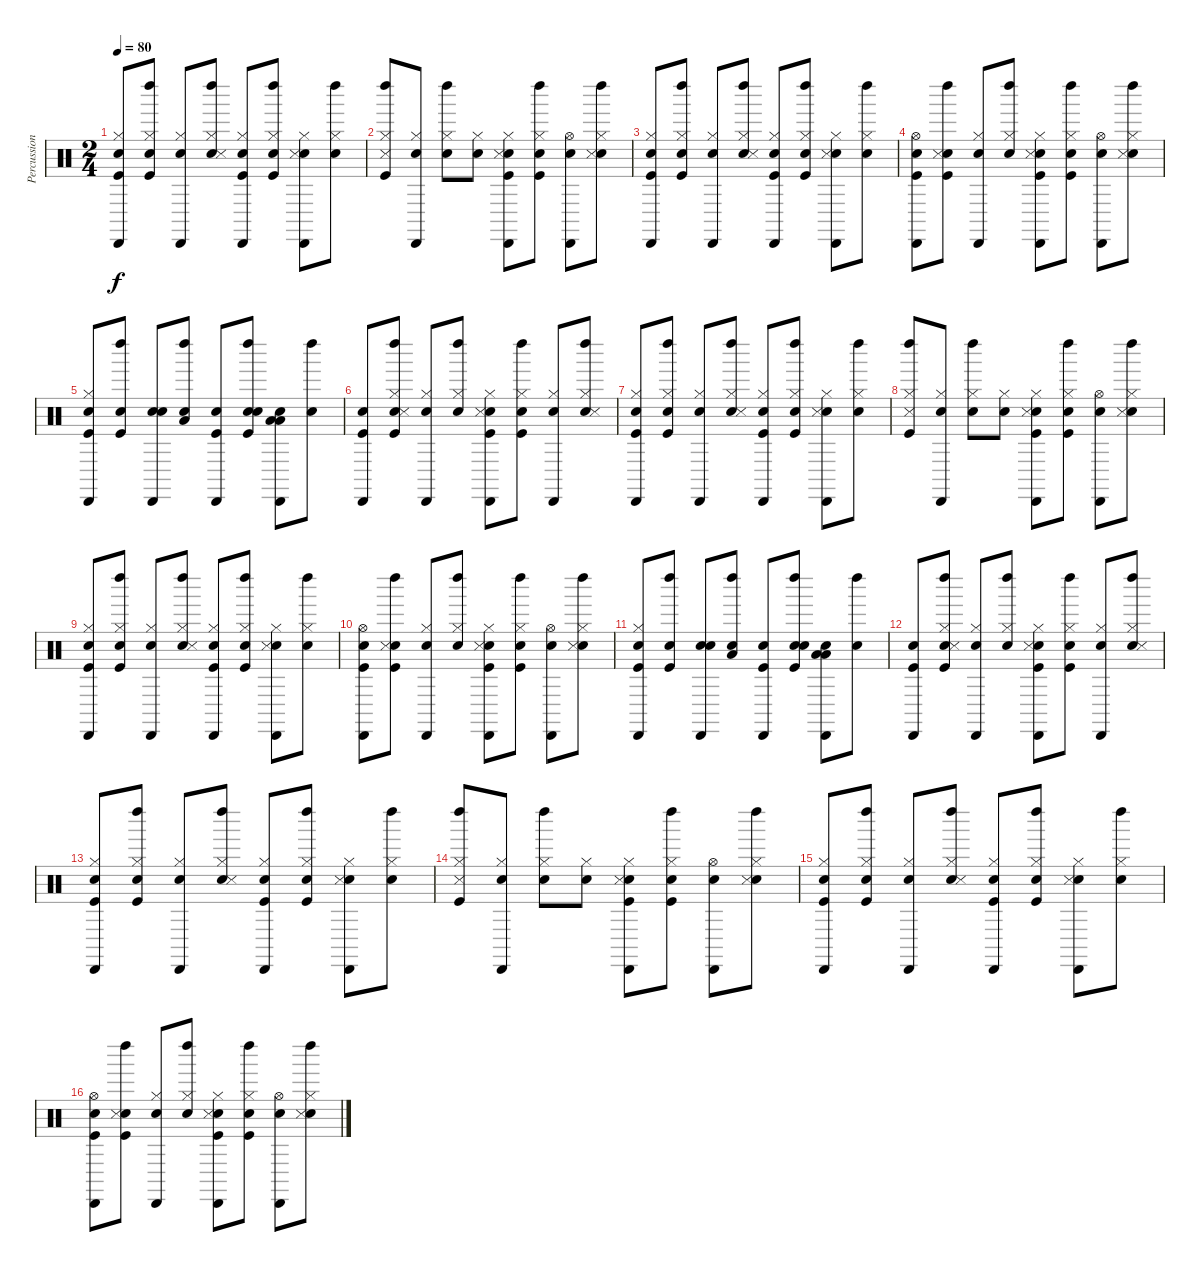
\track ("Percussions" "Percussion") {instrument percussion}
\staff {score}
\articulation defaults
\ts (2 4)
\tempo 80
\clef neutral
\ks c
("Snare (hit)" "Kick (hit)" "Hi-Hat (closed)" "Cabasa (hit)").8{dy f} ("Snare (hit)" "Kick (hit)" "Hi-Hat (closed)" "Left Maraca (hit)").8 ("Snare (hit)" "Hi-Hat (closed)" "Cabasa (hit)").8 ("Snare (hit)" "Hi-Hat (closed)" "Snare (side stick) 3" "Left Maraca (hit)").8 ("Snare (hit)" "Kick (hit)" "Hi-Hat (closed)" "Cabasa (hit)").8 ("Snare (hit)" "Kick (hit)" "Hi-Hat (closed)" "Left Maraca (hit)").8 ("Snare (hit)" "Hi-Hat (closed)" "Snare (side stick) 3" "Cabasa (hit)").8 ("Snare (hit)" "Hi-Hat (closed)" "Left Maraca (hit)").8 |
("Kick (hit)" "Hi-Hat (closed)" "Snare (side stick) 3" "Left Maraca (hit)").8 ("Snare (hit)" "Hi-Hat (closed)" "Cabasa (hit)").8 ("Snare (hit)" "Hi-Hat (closed)" "Left Maraca (hit)").8 ("Snare (hit)" "Hi-Hat (closed)").8 ("Snare (hit)" "Kick (hit)" "Hi-Hat (closed)" "Snare (side stick) 3" "Cabasa (hit)").8 ("Snare (hit)" "Kick (hit)" "Hi-Hat (closed)" "Left Maraca (hit)").8 ("Snare (hit)" "Hi-Hat (open)" "Cabasa (hit)").8 ("Snare (hit)" "Hi-Hat (closed)" "Snare (side stick) 3" "Left Maraca (hit)").8 |
("Snare (hit)" "Kick (hit)" "Hi-Hat (closed)" "Cabasa (hit)").8 ("Snare (hit)" "Kick (hit)" "Hi-Hat (closed)" "Left Maraca (hit)").8 ("Snare (hit)" "Hi-Hat (closed)" "Cabasa (hit)").8 ("Snare (hit)" "Hi-Hat (closed)" "Snare (side stick) 3" "Left Maraca (hit)").8 ("Snare (hit)" "Kick (hit)" "Hi-Hat (closed)" "Cabasa (hit)").8 ("Snare (hit)" "Kick (hit)" "Hi-Hat (closed)" "Left Maraca (hit)").8 ("Snare (hit)" "Hi-Hat (closed)" "Snare (side stick) 3" "Cabasa (hit)").8 ("Snare (hit)" "Hi-Hat (closed)" "Left Maraca (hit)").8 |
("Snare (hit)" "Kick (hit)" "Hi-Hat (open)" "Cabasa (hit)").8 ("Snare (hit)" "Kick (hit)" "Snare (side stick) 3" "Left Maraca (hit)").8 ("Snare (hit)" "Hi-Hat (closed)" "Cabasa (hit)").8 ("Snare (hit)" "Hi-Hat (closed)" "Left Maraca (hit)").8 ("Snare (hit)" "Kick (hit)" "Hi-Hat (closed)" "Snare (side stick) 3" "Cabasa (hit)").8 ("Snare (hit)" "Kick (hit)" "Hi-Hat (closed)" "Left Maraca (hit)").8 ("Snare (hit)" "Hi-Hat (open)" "Cabasa (hit)").8 ("Snare (hit)" "Hi-Hat (closed)" "Snare (side stick) 3" "Left Maraca (hit)").8 |
("Snare (hit)" "Kick (hit)" "Hi-Hat (closed)" "Cabasa (hit)").8 ("Snare (hit)" "Kick (hit)" "Left Maraca (hit)").8 ("Snare (hit)" "Snare (hit) 2" "Cabasa (hit)").8 ("Snare (hit)" "Low Tom (hit)" "Left Maraca (hit)").8 ("Snare (hit)" "Kick (hit)" "Cabasa (hit)").8 ("Snare (hit)" "Kick (hit)" "Snare (hit) 2" "Left Maraca (hit)").8 ("Snare (hit)" "Low Floor Tom (hit)" "Low Tom (hit)" "Cabasa (hit)").8 ("Snare (hit)" "Left Maraca (hit)").8 |
("Snare (hit)" "Kick (hit)" "Cabasa (hit)").8 ("Snare (hit)" "Kick (hit)" "Hi-Hat (closed)" "Snare (side stick) 3" "Left Maraca (hit)").8 ("Snare (hit)" "Hi-Hat (closed)" "Cabasa (hit)").8 ("Snare (hit)" "Hi-Hat (closed)" "Left Maraca (hit)").8 ("Snare (hit)" "Kick (hit)" "Hi-Hat (closed)" "Snare (side stick) 3" "Cabasa (hit)").8 ("Snare (hit)" "Kick (hit)" "Hi-Hat (closed)" "Left Maraca (hit)").8 ("Snare (hit)" "Hi-Hat (closed)" "Cabasa (hit)").8 ("Snare (hit)" "Hi-Hat (closed)" "Snare (side stick) 3" "Left Maraca (hit)").8 |
("Snare (hit)" "Kick (hit)" "Hi-Hat (closed)" "Cabasa (hit)").8 ("Snare (hit)" "Kick (hit)" "Hi-Hat (closed)" "Left Maraca (hit)").8 ("Snare (hit)" "Hi-Hat (closed)" "Cabasa (hit)").8 ("Snare (hit)" "Hi-Hat (closed)" "Snare (side stick) 3" "Left Maraca (hit)").8 ("Snare (hit)" "Kick (hit)" "Hi-Hat (closed)" "Cabasa (hit)").8 ("Snare (hit)" "Kick (hit)" "Hi-Hat (closed)" "Left Maraca (hit)").8 ("Snare (hit)" "Hi-Hat (closed)" "Snare (side stick) 3" "Cabasa (hit)").8 ("Snare (hit)" "Hi-Hat (closed)" "Left Maraca (hit)").8 |
("Kick (hit)" "Hi-Hat (closed)" "Snare (side stick) 3" "Left Maraca (hit)").8 ("Snare (hit)" "Hi-Hat (closed)" "Cabasa (hit)").8 ("Snare (hit)" "Hi-Hat (closed)" "Left Maraca (hit)").8 ("Snare (hit)" "Hi-Hat (closed)").8 ("Snare (hit)" "Kick (hit)" "Hi-Hat (closed)" "Snare (side stick) 3" "Cabasa (hit)").8 ("Snare (hit)" "Kick (hit)" "Hi-Hat (closed)" "Left Maraca (hit)").8 ("Snare (hit)" "Hi-Hat (open)" "Cabasa (hit)").8 ("Snare (hit)" "Hi-Hat (closed)" "Snare (side stick) 3" "Left Maraca (hit)").8 |
("Snare (hit)" "Kick (hit)" "Hi-Hat (closed)" "Cabasa (hit)").8 ("Snare (hit)" "Kick (hit)" "Hi-Hat (closed)" "Left Maraca (hit)").8 ("Snare (hit)" "Hi-Hat (closed)" "Cabasa (hit)").8 ("Snare (hit)" "Hi-Hat (closed)" "Snare (side stick) 3" "Left Maraca (hit)").8 ("Snare (hit)" "Kick (hit)" "Hi-Hat (closed)" "Cabasa (hit)").8 ("Snare (hit)" "Kick (hit)" "Hi-Hat (closed)" "Left Maraca (hit)").8 ("Snare (hit)" "Hi-Hat (closed)" "Snare (side stick) 3" "Cabasa (hit)").8 ("Snare (hit)" "Hi-Hat (closed)" "Left Maraca (hit)").8 |
("Snare (hit)" "Kick (hit)" "Hi-Hat (open)" "Cabasa (hit)").8 ("Snare (hit)" "Kick (hit)" "Snare (side stick) 3" "Left Maraca (hit)").8 ("Snare (hit)" "Hi-Hat (closed)" "Cabasa (hit)").8 ("Snare (hit)" "Hi-Hat (closed)" "Left Maraca (hit)").8 ("Snare (hit)" "Kick (hit)" "Hi-Hat (closed)" "Snare (side stick) 3" "Cabasa (hit)").8 ("Snare (hit)" "Kick (hit)" "Hi-Hat (closed)" "Left Maraca (hit)").8 ("Snare (hit)" "Hi-Hat (open)" "Cabasa (hit)").8 ("Snare (hit)" "Hi-Hat (closed)" "Snare (side stick) 3" "Left Maraca (hit)").8 |
("Snare (hit)" "Kick (hit)" "Hi-Hat (closed)" "Cabasa (hit)").8 ("Snare (hit)" "Kick (hit)" "Left Maraca (hit)").8 ("Snare (hit)" "Snare (hit) 2" "Cabasa (hit)").8 ("Snare (hit)" "Low Tom (hit)" "Left Maraca (hit)").8 ("Snare (hit)" "Kick (hit)" "Cabasa (hit)").8 ("Snare (hit)" "Kick (hit)" "Snare (hit) 2" "Left Maraca (hit)").8 ("Snare (hit)" "Low Floor Tom (hit)" "Low Tom (hit)" "Cabasa (hit)").8 ("Snare (hit)" "Left Maraca (hit)").8 |
("Snare (hit)" "Kick (hit)" "Cabasa (hit)").8 ("Snare (hit)" "Kick (hit)" "Hi-Hat (closed)" "Snare (side stick) 3" "Left Maraca (hit)").8 ("Snare (hit)" "Hi-Hat (closed)" "Cabasa (hit)").8 ("Snare (hit)" "Hi-Hat (closed)" "Left Maraca (hit)").8 ("Snare (hit)" "Kick (hit)" "Hi-Hat (closed)" "Snare (side stick) 3" "Cabasa (hit)").8 ("Snare (hit)" "Kick (hit)" "Hi-Hat (closed)" "Left Maraca (hit)").8 ("Snare (hit)" "Hi-Hat (closed)" "Cabasa (hit)").8 ("Snare (hit)" "Hi-Hat (closed)" "Snare (side stick) 3" "Left Maraca (hit)").8 |
("Snare (hit)" "Kick (hit)" "Hi-Hat (closed)" "Cabasa (hit)").8 ("Snare (hit)" "Kick (hit)" "Hi-Hat (closed)" "Left Maraca (hit)").8 ("Snare (hit)" "Hi-Hat (closed)" "Cabasa (hit)").8 ("Snare (hit)" "Hi-Hat (closed)" "Snare (side stick) 3" "Left Maraca (hit)").8 ("Snare (hit)" "Kick (hit)" "Hi-Hat (closed)" "Cabasa (hit)").8 ("Snare (hit)" "Kick (hit)" "Hi-Hat (closed)" "Left Maraca (hit)").8 ("Snare (hit)" "Hi-Hat (closed)" "Snare (side stick) 3" "Cabasa (hit)").8 ("Snare (hit)" "Hi-Hat (closed)" "Left Maraca (hit)").8 |
("Kick (hit)" "Hi-Hat (closed)" "Snare (side stick) 3" "Left Maraca (hit)").8 ("Snare (hit)" "Hi-Hat (closed)" "Cabasa (hit)").8 ("Snare (hit)" "Hi-Hat (closed)" "Left Maraca (hit)").8 ("Snare (hit)" "Hi-Hat (closed)").8 ("Snare (hit)" "Kick (hit)" "Hi-Hat (closed)" "Snare (side stick) 3" "Cabasa (hit)").8 ("Snare (hit)" "Kick (hit)" "Hi-Hat (closed)" "Left Maraca (hit)").8 ("Snare (hit)" "Hi-Hat (open)" "Cabasa (hit)").8 ("Snare (hit)" "Hi-Hat (closed)" "Snare (side stick) 3" "Left Maraca (hit)").8 |
("Snare (hit)" "Kick (hit)" "Hi-Hat (closed)" "Cabasa (hit)").8 ("Snare (hit)" "Kick (hit)" "Hi-Hat (closed)" "Left Maraca (hit)").8 ("Snare (hit)" "Hi-Hat (closed)" "Cabasa (hit)").8 ("Snare (hit)" "Hi-Hat (closed)" "Snare (side stick) 3" "Left Maraca (hit)").8 ("Snare (hit)" "Kick (hit)" "Hi-Hat (closed)" "Cabasa (hit)").8 ("Snare (hit)" "Kick (hit)" "Hi-Hat (closed)" "Left Maraca (hit)").8 ("Snare (hit)" "Hi-Hat (closed)" "Snare (side stick) 3" "Cabasa (hit)").8 ("Snare (hit)" "Hi-Hat (closed)" "Left Maraca (hit)").8 |
("Snare (hit)" "Kick (hit)" "Hi-Hat (open)" "Cabasa (hit)").8 ("Snare (hit)" "Kick (hit)" "Snare (side stick) 3" "Left Maraca (hit)").8 ("Snare (hit)" "Hi-Hat (closed)" "Cabasa (hit)").8 ("Snare (hit)" "Hi-Hat (closed)" "Left Maraca (hit)").8 ("Snare (hit)" "Kick (hit)" "Hi-Hat (closed)" "Snare (side stick) 3" "Cabasa (hit)").8 ("Snare (hit)" "Kick (hit)" "Hi-Hat (closed)" "Left Maraca (hit)").8 ("Snare (hit)" "Hi-Hat (open)" "Cabasa (hit)").8 ("Snare (hit)" "Hi-Hat (closed)" "Snare (side stick) 3" "Left Maraca (hit)").8
